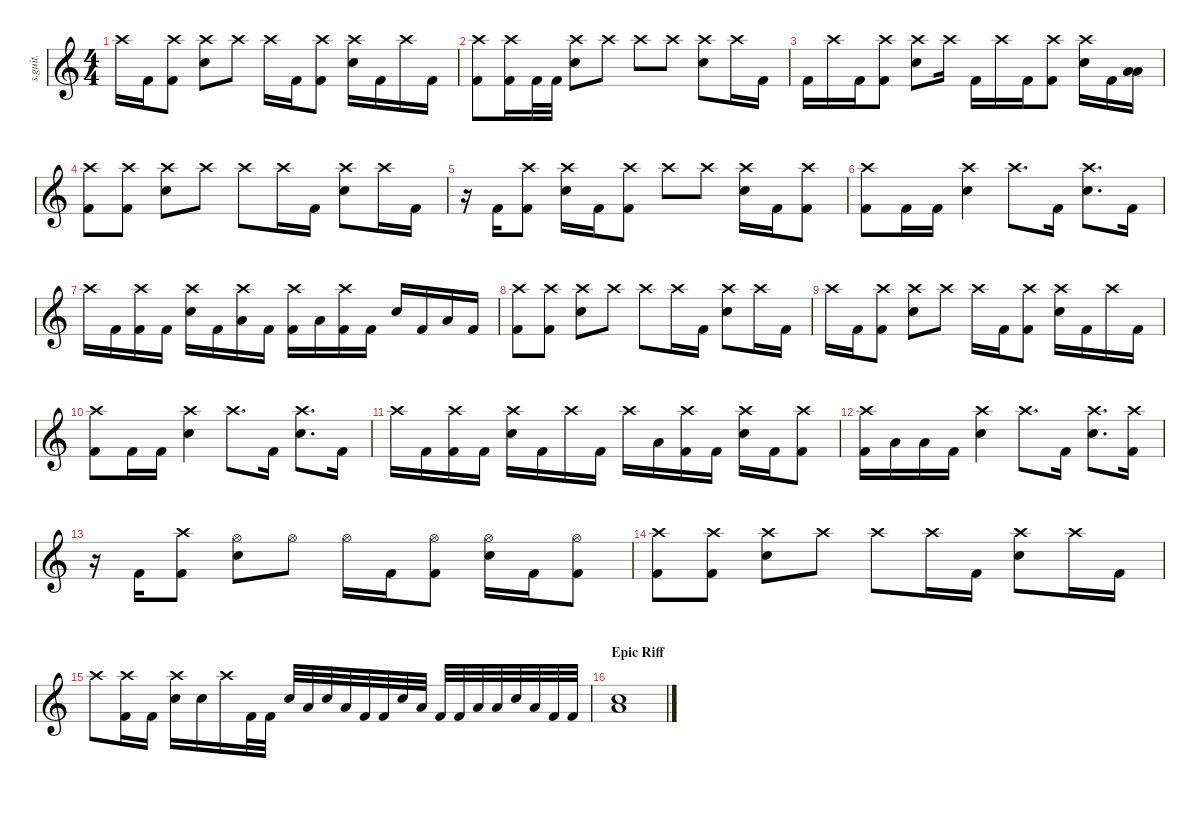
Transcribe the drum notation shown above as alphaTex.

\defaultSystemsLayout 4
\hideDynamics
\bracketExtendMode nobrackets
\track ("" "s.guit.") {instrument percussion}
\staff {score}
\articulation defaults
\ts (4 4)
\tempo (106 hide)
\clef g2
\ks c "Crash high (hit)".16{lyrics (0 "") lyrics (1 "") lyrics (2 "") lyrics (3 "") lyrics (4 "") dy f} "Kick (hit) 2".16{lyrics (0 "") lyrics (1 "") lyrics (2 "") lyrics (3 "") lyrics (4 "")}
("Kick (hit) 2" "Crash high (hit)").8{lyrics (0 "") lyrics (1 "") lyrics (2 "") lyrics (3 "") lyrics (4 "")} ("Snare (hit) 2" "Crash high (hit)").8{lyrics (0 "") lyrics (1 "") lyrics (2 "") lyrics (3 "") lyrics (4 "")} "Crash high (hit)".8{lyrics (0 "") lyrics (1 "") lyrics (2 "") lyrics (3 "") lyrics (4 "")} "Crash high (hit)".16{lyrics (0 "") lyrics (1 "") lyrics (2 "") lyrics (3 "") lyrics (4 "")} "Kick (hit) 2".16{lyrics (0 "") lyrics (1 "") lyrics (2 "") lyrics (3 "") lyrics (4 "")} ("Kick (hit) 2" "Crash high (hit)").8{lyrics (0 "") lyrics (1 "") lyrics (2 "") lyrics (3 "") lyrics (4 "")} ("Snare (hit) 2" "Crash high (hit)").16{lyrics (0 "") lyrics (1 "") lyrics (2 "") lyrics (3 "") lyrics (4 "")} "Kick (hit) 2".16{lyrics (0 "") lyrics (1 "") lyrics (2 "") lyrics (3 "") lyrics (4 "")} "Crash high (hit)".16{lyrics (0 "") lyrics (1 "") lyrics (2 "") lyrics (3 "") lyrics (4 "")} "Kick (hit) 2".16{lyrics (0 "") lyrics (1 "") lyrics (2 "") lyrics (3 "") lyrics (4 "")} |
("Kick (hit) 2" "Crash high (hit)").8{lyrics (0 "") lyrics (1 "") lyrics (2 "") lyrics (3 "") lyrics (4 "")} ("Kick (hit) 2" "Crash high (hit)").16{lyrics (0 "") lyrics (1 "") lyrics (2 "") lyrics (3 "") lyrics (4 "")} "Kick (hit) 2".32{lyrics (0 "") lyrics (1 "") lyrics (2 "") lyrics (3 "") lyrics (4 "")} "Kick (hit) 2".32{lyrics (0 "") lyrics (1 "") lyrics (2 "") lyrics (3 "") lyrics (4 "")} ("Snare (hit) 2" "Crash high (hit)").8{lyrics (0 "") lyrics (1 "") lyrics (2 "") lyrics (3 "") lyrics (4 "")} "Crash high (hit)".8{lyrics (0 "") lyrics (1 "") lyrics (2 "") lyrics (3 "") lyrics (4 "")} "Crash high (hit)".8{lyrics (0 "") lyrics (1 "") lyrics (2 "") lyrics (3 "") lyrics (4 "")} "Crash high (hit)".8{lyrics (0 "") lyrics (1 "") lyrics (2 "") lyrics (3 "") lyrics (4 "")} ("Snare (hit) 2" "Crash high (hit)").8{lyrics (0 "") lyrics (1 "") lyrics (2 "") lyrics (3 "") lyrics (4 "")} "Crash high (hit)".16{lyrics (0 "") lyrics (1 "") lyrics (2 "") lyrics (3 "") lyrics (4 "")} "Kick (hit) 2".16{lyrics (0 "") lyrics (1 "") lyrics (2 "") lyrics (3 "") lyrics (4 "")} |
"Kick (hit) 2".16{lyrics (0 "") lyrics (1 "") lyrics (2 "") lyrics (3 "") lyrics (4 "")} "Crash high (hit)".16{lyrics (0 "") lyrics (1 "") lyrics (2 "") lyrics (3 "") lyrics (4 "")} "Kick (hit) 2".16{lyrics (0 "") lyrics (1 "") lyrics (2 "") lyrics (3 "") lyrics (4 "")} ("Kick (hit) 2" "Crash high (hit)").8{lyrics (0 "") lyrics (1 "") lyrics (2 "") lyrics (3 "") lyrics (4 "")} ("Snare (hit) 2" "Crash high (hit)").8{lyrics (0 "") lyrics (1 "") lyrics (2 "") lyrics (3 "") lyrics (4 "")} "Crash high (hit)".16{lyrics (0 "") lyrics (1 "") lyrics (2 "") lyrics (3 "") lyrics (4 "")} "Kick (hit) 2".16{lyrics (0 "") lyrics (1 "") lyrics (2 "") lyrics (3 "") lyrics (4 "")} "Crash high (hit)".16{lyrics (0 "") lyrics (1 "") lyrics (2 "") lyrics (3 "") lyrics (4 "")} "Kick (hit) 2".16{lyrics (0 "") lyrics (1 "") lyrics (2 "") lyrics (3 "") lyrics (4 "")} ("Kick (hit) 2" "Crash high (hit)").8{lyrics (0 "") lyrics (1 "") lyrics (2 "") lyrics (3 "") lyrics (4 "")} ("Snare (hit) 2" "Crash high (hit)").16{lyrics (0 "") lyrics (1 "") lyrics (2 "") lyrics (3 "") lyrics (4 "")} "Kick (hit) 2".16{lyrics (0 "") lyrics (1 "") lyrics (2 "") lyrics (3 "") lyrics (4 "")} ("Low Floor Tom (hit)" "Low Tom (hit)").16{lyrics (0 "") lyrics (1 "") lyrics (2 "") lyrics (3 "") lyrics (4 "")} |
("Kick (hit) 2" "Crash high (hit)").8{lyrics (0 "") lyrics (1 "") lyrics (2 "") lyrics (3 "") lyrics (4 "")} ("Kick (hit) 2" "Crash high (hit)").8{lyrics (0 "") lyrics (1 "") lyrics (2 "") lyrics (3 "") lyrics (4 "")} ("Snare (hit) 2" "Crash high (hit)").8{lyrics (0 "") lyrics (1 "") lyrics (2 "") lyrics (3 "") lyrics (4 "")} "Crash high (hit)".8{lyrics (0 "") lyrics (1 "") lyrics (2 "") lyrics (3 "") lyrics (4 "")} "Crash high (hit)".8{lyrics (0 "") lyrics (1 "") lyrics (2 "") lyrics (3 "") lyrics (4 "")} "Crash high (hit)".16{lyrics (0 "") lyrics (1 "") lyrics (2 "") lyrics (3 "") lyrics (4 "")} "Kick (hit) 2".16{lyrics (0 "") lyrics (1 "") lyrics (2 "") lyrics (3 "") lyrics (4 "")} ("Snare (hit) 2" "Crash high (hit)").8{lyrics (0 "") lyrics (1 "") lyrics (2 "") lyrics (3 "") lyrics (4 "")} "Crash high (hit)".16{lyrics (0 "") lyrics (1 "") lyrics (2 "") lyrics (3 "") lyrics (4 "")} "Kick (hit) 2".16{lyrics (0 "") lyrics (1 "") lyrics (2 "") lyrics (3 "") lyrics (4 "")} |
r.16 "Kick (hit) 2".16{lyrics (0 "") lyrics (1 "") lyrics (2 "") lyrics (3 "") lyrics (4 "")} ("Kick (hit) 2" "Crash high (hit)").8{lyrics (0 "") lyrics (1 "") lyrics (2 "") lyrics (3 "") lyrics (4 "")} ("Snare (hit) 2" "Crash high (hit)").16{lyrics (0 "") lyrics (1 "") lyrics (2 "") lyrics (3 "") lyrics (4 "")} "Kick (hit) 2".16{lyrics (0 "") lyrics (1 "") lyrics (2 "") lyrics (3 "") lyrics (4 "")} ("Kick (hit) 2" "Crash high (hit)").8{lyrics (0 "") lyrics (1 "") lyrics (2 "") lyrics (3 "") lyrics (4 "")} "Crash high (hit)".8{lyrics (0 "") lyrics (1 "") lyrics (2 "") lyrics (3 "") lyrics (4 "")} "Crash high (hit)".8{lyrics (0 "") lyrics (1 "") lyrics (2 "") lyrics (3 "") lyrics (4 "")} ("Snare (hit) 2" "Crash high (hit)").16{lyrics (0 "") lyrics (1 "") lyrics (2 "") lyrics (3 "") lyrics (4 "")} "Kick (hit) 2".16{lyrics (0 "") lyrics (1 "") lyrics (2 "") lyrics (3 "") lyrics (4 "")} ("Kick (hit) 2" "Crash high (hit)").8{lyrics (0 "") lyrics (1 "") lyrics (2 "") lyrics (3 "") lyrics (4 "")} |
("Kick (hit) 2" "Crash high (hit)").8{lyrics (0 "") lyrics (1 "") lyrics (2 "") lyrics (3 "") lyrics (4 "")} "Kick (hit) 2".16{lyrics (0 "") lyrics (1 "") lyrics (2 "") lyrics (3 "") lyrics (4 "")} "Kick (hit) 2".16{lyrics (0 "") lyrics (1 "") lyrics (2 "") lyrics (3 "") lyrics (4 "")} ("Snare (hit) 2" "Crash high (hit)").4{lyrics (0 "") lyrics (1 "") lyrics (2 "") lyrics (3 "") lyrics (4 "")} "Crash high (hit)".8{d lyrics (0 "") lyrics (1 "") lyrics (2 "") lyrics (3 "") lyrics (4 "")} "Kick (hit) 2".16{lyrics (0 "") lyrics (1 "") lyrics (2 "") lyrics (3 "") lyrics (4 "")} ("Snare (hit) 2" "Crash high (hit)").8{d lyrics (0 "") lyrics (1 "") lyrics (2 "") lyrics (3 "") lyrics (4 "")} "Kick (hit) 2".16{lyrics (0 "") lyrics (1 "") lyrics (2 "") lyrics (3 "") lyrics (4 "")} |
"Crash high (hit)".16{lyrics (0 "") lyrics (1 "") lyrics (2 "") lyrics (3 "") lyrics (4 "")} "Kick (hit) 2".16{lyrics (0 "") lyrics (1 "") lyrics (2 "") lyrics (3 "") lyrics (4 "")} ("Kick (hit) 2" "Crash high (hit)").16{lyrics (0 "") lyrics (1 "") lyrics (2 "") lyrics (3 "") lyrics (4 "")} "Kick (hit) 2".16{lyrics (0 "") lyrics (1 "") lyrics (2 "") lyrics (3 "") lyrics (4 "")} ("Snare (hit) 2" "Crash high (hit)").16{lyrics (0 "") lyrics (1 "") lyrics (2 "") lyrics (3 "") lyrics (4 "")} "Kick (hit) 2".16{lyrics (0 "") lyrics (1 "") lyrics (2 "") lyrics (3 "") lyrics (4 "")} ("Low Tom (hit)" "Crash high (hit)").16{lyrics (0 "") lyrics (1 "") lyrics (2 "") lyrics (3 "") lyrics (4 "")} "Kick (hit) 2".16{lyrics (0 "") lyrics (1 "") lyrics (2 "") lyrics (3 "") lyrics (4 "")} ("Kick (hit) 2" "Crash high (hit)").16{lyrics (0 "") lyrics (1 "") lyrics (2 "") lyrics (3 "") lyrics (4 "")} "Low Floor Tom (hit)".16{lyrics (0 "") lyrics (1 "") lyrics (2 "") lyrics (3 "") lyrics (4 "")} ("Kick (hit) 2" "Crash high (hit)").16{lyrics (0 "") lyrics (1 "") lyrics (2 "") lyrics (3 "") lyrics (4 "")} "Kick (hit) 2".16{lyrics (0 "") lyrics (1 "") lyrics (2 "") lyrics (3 "") lyrics (4 "")} "Snare (hit) 2".16{lyrics (0 "") lyrics (1 "") lyrics (2 "") lyrics (3 "") lyrics (4 "")} "Kick (hit) 2".16{lyrics (0 "") lyrics (1 "") lyrics (2 "") lyrics (3 "") lyrics (4 "")} "Low Floor Tom (hit)".16{lyrics (0 "") lyrics (1 "") lyrics (2 "") lyrics (3 "") lyrics (4 "")} "Kick (hit) 2".16{lyrics (0 "") lyrics (1 "") lyrics (2 "") lyrics (3 "") lyrics (4 "")} |
("Kick (hit) 2" "Crash high (hit)").8{lyrics (0 "") lyrics (1 "") lyrics (2 "") lyrics (3 "") lyrics (4 "")} ("Kick (hit) 2" "Crash high (hit)").8{lyrics (0 "") lyrics (1 "") lyrics (2 "") lyrics (3 "") lyrics (4 "")} ("Snare (hit) 2" "Crash high (hit)").8{lyrics (0 "") lyrics (1 "") lyrics (2 "") lyrics (3 "") lyrics (4 "")} "Crash high (hit)".8{lyrics (0 "") lyrics (1 "") lyrics (2 "") lyrics (3 "") lyrics (4 "")} "Crash high (hit)".8{lyrics (0 "") lyrics (1 "") lyrics (2 "") lyrics (3 "") lyrics (4 "")} "Crash high (hit)".16{lyrics (0 "") lyrics (1 "") lyrics (2 "") lyrics (3 "") lyrics (4 "")} "Kick (hit) 2".16{lyrics (0 "") lyrics (1 "") lyrics (2 "") lyrics (3 "") lyrics (4 "")} ("Snare (hit) 2" "Crash high (hit)").8{lyrics (0 "") lyrics (1 "") lyrics (2 "") lyrics (3 "") lyrics (4 "")} "Crash high (hit)".16{lyrics (0 "") lyrics (1 "") lyrics (2 "") lyrics (3 "") lyrics (4 "")} "Kick (hit) 2".16{lyrics (0 "") lyrics (1 "") lyrics (2 "") lyrics (3 "") lyrics (4 "")} |
"Crash high (hit)".16{lyrics (0 "") lyrics (1 "") lyrics (2 "") lyrics (3 "") lyrics (4 "")} "Kick (hit) 2".16{lyrics (0 "") lyrics (1 "") lyrics (2 "") lyrics (3 "") lyrics (4 "")} ("Kick (hit) 2" "Crash high (hit)").8{lyrics (0 "") lyrics (1 "") lyrics (2 "") lyrics (3 "") lyrics (4 "")} ("Snare (hit) 2" "Crash high (hit)").8{lyrics (0 "") lyrics (1 "") lyrics (2 "") lyrics (3 "") lyrics (4 "")} "Crash high (hit)".8{lyrics (0 "") lyrics (1 "") lyrics (2 "") lyrics (3 "") lyrics (4 "")} "Crash high (hit)".16{lyrics (0 "") lyrics (1 "") lyrics (2 "") lyrics (3 "") lyrics (4 "")} "Kick (hit) 2".16{lyrics (0 "") lyrics (1 "") lyrics (2 "") lyrics (3 "") lyrics (4 "")} ("Kick (hit) 2" "Crash high (hit)").8{lyrics (0 "") lyrics (1 "") lyrics (2 "") lyrics (3 "") lyrics (4 "")} ("Snare (hit) 2" "Crash high (hit)").16{lyrics (0 "") lyrics (1 "") lyrics (2 "") lyrics (3 "") lyrics (4 "")} "Kick (hit) 2".16{lyrics (0 "") lyrics (1 "") lyrics (2 "") lyrics (3 "") lyrics (4 "")} "Crash high (hit)".16{lyrics (0 "") lyrics (1 "") lyrics (2 "") lyrics (3 "") lyrics (4 "")} "Kick (hit) 2".16{lyrics (0 "") lyrics (1 "") lyrics (2 "") lyrics (3 "") lyrics (4 "")} |
("Kick (hit) 2" "Crash high (hit)").8{lyrics (0 "") lyrics (1 "") lyrics (2 "") lyrics (3 "") lyrics (4 "")} "Kick (hit) 2".16{lyrics (0 "") lyrics (1 "") lyrics (2 "") lyrics (3 "") lyrics (4 "")} "Kick (hit) 2".16{lyrics (0 "") lyrics (1 "") lyrics (2 "") lyrics (3 "") lyrics (4 "")} ("Snare (hit) 2" "Crash high (hit)").4{lyrics (0 "") lyrics (1 "") lyrics (2 "") lyrics (3 "") lyrics (4 "")} "Crash high (hit)".8{d lyrics (0 "") lyrics (1 "") lyrics (2 "") lyrics (3 "") lyrics (4 "")} "Kick (hit) 2".16{lyrics (0 "") lyrics (1 "") lyrics (2 "") lyrics (3 "") lyrics (4 "")} ("Snare (hit) 2" "Crash high (hit)").8{d lyrics (0 "") lyrics (1 "") lyrics (2 "") lyrics (3 "") lyrics (4 "")} "Kick (hit) 2".16{lyrics (0 "") lyrics (1 "") lyrics (2 "") lyrics (3 "") lyrics (4 "")} |
"Crash high (hit)".16{lyrics (0 "") lyrics (1 "") lyrics (2 "") lyrics (3 "") lyrics (4 "")} "Kick (hit) 2".16{lyrics (0 "") lyrics (1 "") lyrics (2 "") lyrics (3 "") lyrics (4 "")} ("Kick (hit) 2" "Crash high (hit)").16{lyrics (0 "") lyrics (1 "") lyrics (2 "") lyrics (3 "") lyrics (4 "")} "Kick (hit) 2".16{lyrics (0 "") lyrics (1 "") lyrics (2 "") lyrics (3 "") lyrics (4 "")} ("Snare (hit) 2" "Crash high (hit)").16{lyrics (0 "") lyrics (1 "") lyrics (2 "") lyrics (3 "") lyrics (4 "")} "Kick (hit) 2".16{lyrics (0 "") lyrics (1 "") lyrics (2 "") lyrics (3 "") lyrics (4 "")} "Crash high (hit)".16{lyrics (0 "") lyrics (1 "") lyrics (2 "") lyrics (3 "") lyrics (4 "")} "Kick (hit) 2".16{lyrics (0 "") lyrics (1 "") lyrics (2 "") lyrics (3 "") lyrics (4 "")} "Crash high (hit)".16{lyrics (0 "") lyrics (1 "") lyrics (2 "") lyrics (3 "") lyrics (4 "")} "Low Tom (hit)".16{lyrics (0 "") lyrics (1 "") lyrics (2 "") lyrics (3 "") lyrics (4 "")} ("Kick (hit) 2" "Crash high (hit)").16{lyrics (0 "") lyrics (1 "") lyrics (2 "") lyrics (3 "") lyrics (4 "")} "Kick (hit) 2".16{lyrics (0 "") lyrics (1 "") lyrics (2 "") lyrics (3 "") lyrics (4 "")} ("Snare (hit) 2" "Crash high (hit)").16{lyrics (0 "") lyrics (1 "") lyrics (2 "") lyrics (3 "") lyrics (4 "")} "Kick (hit) 2".16{lyrics (0 "") lyrics (1 "") lyrics (2 "") lyrics (3 "") lyrics (4 "")} ("Kick (hit) 2" "Crash high (hit)").8{lyrics (0 "") lyrics (1 "") lyrics (2 "") lyrics (3 "") lyrics (4 "")} |
("Kick (hit) 2" "Crash high (hit)").16{lyrics (0 "") lyrics (1 "") lyrics (2 "") lyrics (3 "") lyrics (4 "")} "Low Floor Tom (hit)".16{lyrics (0 "") lyrics (1 "") lyrics (2 "") lyrics (3 "") lyrics (4 "")} "Low Floor Tom (hit)".16{lyrics (0 "") lyrics (1 "") lyrics (2 "") lyrics (3 "") lyrics (4 "")} "Kick (hit) 2".16{lyrics (0 "") lyrics (1 "") lyrics (2 "") lyrics (3 "") lyrics (4 "")} ("Snare (hit) 2" "Crash high (hit)").4{lyrics (0 "") lyrics (1 "") lyrics (2 "") lyrics (3 "") lyrics (4 "")} "Crash high (hit)".8{d lyrics (0 "") lyrics (1 "") lyrics (2 "") lyrics (3 "") lyrics (4 "")} "Kick (hit) 2".16{lyrics (0 "") lyrics (1 "") lyrics (2 "") lyrics (3 "") lyrics (4 "")} ("Snare (hit) 2" "Crash high (hit)").8{d lyrics (0 "") lyrics (1 "") lyrics (2 "") lyrics (3 "") lyrics (4 "")} ("Kick (hit) 2" "Crash high (hit)").16{lyrics (0 "") lyrics (1 "") lyrics (2 "") lyrics (3 "") lyrics (4 "")} |
r.16 "Kick (hit) 2".16{lyrics (0 "") lyrics (1 "") lyrics (2 "") lyrics (3 "") lyrics (4 "")} ("Kick (hit) 2" "Crash high (hit)").8{lyrics (0 "") lyrics (1 "") lyrics (2 "") lyrics (3 "") lyrics (4 "")} ("Snare (hit) 2" "Hi-Hat (open)").8{lyrics (0 "") lyrics (1 "") lyrics (2 "") lyrics (3 "") lyrics (4 "")} "Hi-Hat (open)".8{lyrics (0 "") lyrics (1 "") lyrics (2 "") lyrics (3 "") lyrics (4 "")} "Hi-Hat (open)".16{lyrics (0 "") lyrics (1 "") lyrics (2 "") lyrics (3 "") lyrics (4 "")} "Kick (hit) 2".16{lyrics (0 "") lyrics (1 "") lyrics (2 "") lyrics (3 "") lyrics (4 "")} ("Kick (hit) 2" "Hi-Hat (open)").8{lyrics (0 "") lyrics (1 "") lyrics (2 "") lyrics (3 "") lyrics (4 "")} ("Snare (hit) 2" "Hi-Hat (open)").16{lyrics (0 "") lyrics (1 "") lyrics (2 "") lyrics (3 "") lyrics (4 "")} "Kick (hit) 2".16{lyrics (0 "") lyrics (1 "") lyrics (2 "") lyrics (3 "") lyrics (4 "")} ("Kick (hit) 2" "Hi-Hat (open)").8{lyrics (0 "") lyrics (1 "") lyrics (2 "") lyrics (3 "") lyrics (4 "")} |
("Kick (hit) 2" "Crash high (hit)").8{lyrics (0 "") lyrics (1 "") lyrics (2 "") lyrics (3 "") lyrics (4 "")} ("Kick (hit) 2" "Crash high (hit)").8{lyrics (0 "") lyrics (1 "") lyrics (2 "") lyrics (3 "") lyrics (4 "")} ("Snare (hit) 2" "Crash high (hit)").8{lyrics (0 "") lyrics (1 "") lyrics (2 "") lyrics (3 "") lyrics (4 "")} "Crash high (hit)".8{lyrics (0 "") lyrics (1 "") lyrics (2 "") lyrics (3 "") lyrics (4 "")} "Crash high (hit)".8{lyrics (0 "") lyrics (1 "") lyrics (2 "") lyrics (3 "") lyrics (4 "")} "Crash high (hit)".16{lyrics (0 "") lyrics (1 "") lyrics (2 "") lyrics (3 "") lyrics (4 "")} "Kick (hit) 2".16{lyrics (0 "") lyrics (1 "") lyrics (2 "") lyrics (3 "") lyrics (4 "")} ("Snare (hit) 2" "Crash high (hit)").8{lyrics (0 "") lyrics (1 "") lyrics (2 "") lyrics (3 "") lyrics (4 "")} "Crash high (hit)".16{lyrics (0 "") lyrics (1 "") lyrics (2 "") lyrics (3 "") lyrics (4 "")} "Kick (hit) 2".16{lyrics (0 "") lyrics (1 "") lyrics (2 "") lyrics (3 "") lyrics (4 "")} |
"Crash high (hit)".8{lyrics (0 "") lyrics (1 "") lyrics (2 "") lyrics (3 "") lyrics (4 "")} ("Kick (hit) 2" "Crash high (hit)").16{lyrics (0 "") lyrics (1 "") lyrics (2 "") lyrics (3 "") lyrics (4 "")} "Kick (hit) 2".16{lyrics (0 "") lyrics (1 "") lyrics (2 "") lyrics (3 "") lyrics (4 "")} ("Snare (hit) 2" "Crash high (hit)").16{lyrics (0 "") lyrics (1 "") lyrics (2 "") lyrics (3 "") lyrics (4 "")} "Snare (hit) 2".16{lyrics (0 "") lyrics (1 "") lyrics (2 "") lyrics (3 "") lyrics (4 "")} "Crash high (hit)".16{lyrics (0 "") lyrics (1 "") lyrics (2 "") lyrics (3 "") lyrics (4 "")} "Kick (hit) 2".32{lyrics (0 "") lyrics (1 "") lyrics (2 "") lyrics (3 "") lyrics (4 "")} "Kick (hit) 2".32{lyrics (0 "") lyrics (1 "") lyrics (2 "") lyrics (3 "") lyrics (4 "")} "Snare (hit) 2".32{lyrics (0 "") lyrics (1 "") lyrics (2 "") lyrics (3 "") lyrics (4 "")} "Low Tom (hit)".32{lyrics (0 "") lyrics (1 "") lyrics (2 "") lyrics (3 "") lyrics (4 "")} "Snare (hit) 2".32{lyrics (0 "") lyrics (1 "") lyrics (2 "") lyrics (3 "") lyrics (4 "")} "Low Tom (hit)".32{lyrics (0 "") lyrics (1 "") lyrics (2 "") lyrics (3 "") lyrics (4 "")} "Kick (hit) 2".32{lyrics (0 "") lyrics (1 "") lyrics (2 "") lyrics (3 "") lyrics (4 "")} "Kick (hit) 2".32{lyrics (0 "") lyrics (1 "") lyrics (2 "") lyrics (3 "") lyrics (4 "")} "Snare (hit) 2".32{lyrics (0 "") lyrics (1 "") lyrics (2 "") lyrics (3 "") lyrics (4 "")} "Low Tom (hit)".32{lyrics (0 "") lyrics (1 "") lyrics (2 "") lyrics (3 "") lyrics (4 "")} "Kick (hit) 2".32{lyrics (0 "") lyrics (1 "") lyrics (2 "") lyrics (3 "") lyrics (4 "")} "Kick (hit) 2".32{lyrics (0 "") lyrics (1 "") lyrics (2 "") lyrics (3 "") lyrics (4 "")} "Low Tom (hit)".32{lyrics (0 "") lyrics (1 "") lyrics (2 "") lyrics (3 "") lyrics (4 "")} "Low Tom (hit)".32{lyrics (0 "") lyrics (1 "") lyrics (2 "") lyrics (3 "") lyrics (4 "")} "Snare (hit) 2".32{lyrics (0 "") lyrics (1 "") lyrics (2 "") lyrics (3 "") lyrics (4 "")} "Low Tom (hit)".32{lyrics (0 "") lyrics (1 "") lyrics (2 "") lyrics (3 "") lyrics (4 "")} "Kick (hit) 2".32{lyrics (0 "") lyrics (1 "") lyrics (2 "") lyrics (3 "") lyrics (4 "")} "Kick (hit) 2".32{lyrics (0 "") lyrics (1 "") lyrics (2 "") lyrics (3 "") lyrics (4 "")} |
\section ("" "Epic Riff")
\tempo (212 hide)
("Snare (hit) 2" "Low Floor Tom (hit)").1{lyrics (0 "") lyrics (1 "") lyrics (2 "") lyrics (3 "") lyrics (4 "")}
